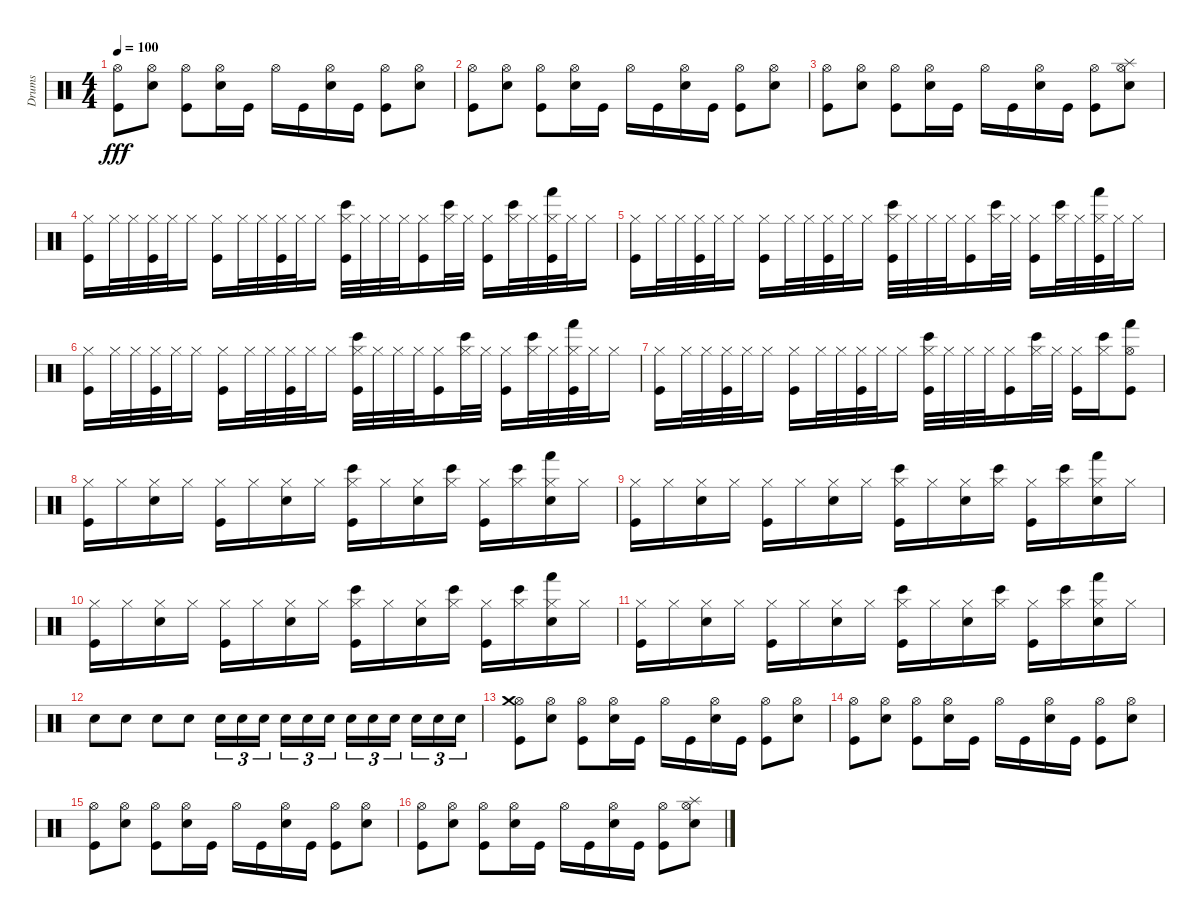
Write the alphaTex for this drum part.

\track ("Drums" "Drums") {instrument percussion}
\staff {score}
\articulation defaults
\ts (4 4)
\tempo 100
\clef neutral
\ks c
("Hi-Hat (open)" "Kick (hit)").8{dy fff} ("Hi-Hat (open)" "Snare (hit) 2").8 ("Hi-Hat (open)" "Kick (hit)").8 ("Hi-Hat (open)" "Snare (hit) 2").16 "Kick (hit)".16 "Hi-Hat (open)".16 "Kick (hit)".16 ("Hi-Hat (open)" "Snare (hit) 2").16 "Kick (hit)".16 ("Hi-Hat (open)" "Kick (hit)").8 ("Hi-Hat (open)" "Snare (hit) 2").8 |
("Hi-Hat (open)" "Kick (hit)").8 ("Hi-Hat (open)" "Snare (hit) 2").8 ("Hi-Hat (open)" "Kick (hit)").8 ("Hi-Hat (open)" "Snare (hit) 2").16 "Kick (hit)".16 "Hi-Hat (open)".16 "Kick (hit)".16 ("Hi-Hat (open)" "Snare (hit) 2").16 "Kick (hit)".16 ("Hi-Hat (open)" "Kick (hit)").8 ("Hi-Hat (open)" "Snare (hit) 2").8 |
("Hi-Hat (open)" "Kick (hit)").8 ("Hi-Hat (open)" "Snare (hit) 2").8 ("Hi-Hat (open)" "Kick (hit)").8 ("Hi-Hat (open)" "Snare (hit) 2").16 "Kick (hit)".16 "Hi-Hat (open)".16 "Kick (hit)".16 ("Hi-Hat (open)" "Snare (hit) 2").16 "Kick (hit)".16 ("Hi-Hat (open)" "Kick (hit)").8 ("Hi-Hat (open)" "Snare (hit) 2" "Splash (hit)").8 |
("Kick (hit)" "Hi-Hat (closed)").16 "Hi-Hat (closed)".32 "Hi-Hat (closed)".32 ("Kick (hit)" "Hi-Hat (closed)").32 "Hi-Hat (closed)".32 "Hi-Hat (closed)".16 ("Kick (hit)" "Hi-Hat (closed)").16 "Hi-Hat (closed)".32 "Hi-Hat (closed)".32 ("Kick (hit)" "Hi-Hat (closed)").32 "Hi-Hat (closed)".32 "Hi-Hat (closed)".16 ("Kick (hit)" "Hi-Hat (closed)" "Bongo High (hit)").32 "Hi-Hat (closed)".32 "Hi-Hat (closed)".32 "Hi-Hat (closed)".32 ("Kick (hit)" "Hi-Hat (closed)").16 ("Hi-Hat (closed)" "Bongo High (hit)").32 "Hi-Hat (closed)".32 ("Kick (hit)" "Hi-Hat (closed)").16 ("Hi-Hat (closed)" "Bongo High (hit)").32 "Hi-Hat (closed)".32 ("Kick (hit)" "Hi-Hat (closed)" "Hand (hit)").32 "Hi-Hat (closed)".32 "Hi-Hat (closed)".16 |
("Kick (hit)" "Hi-Hat (closed)").16 "Hi-Hat (closed)".32 "Hi-Hat (closed)".32 ("Kick (hit)" "Hi-Hat (closed)").32 "Hi-Hat (closed)".32 "Hi-Hat (closed)".16 ("Kick (hit)" "Hi-Hat (closed)").16 "Hi-Hat (closed)".32 "Hi-Hat (closed)".32 ("Kick (hit)" "Hi-Hat (closed)").32 "Hi-Hat (closed)".32 "Hi-Hat (closed)".16 ("Kick (hit)" "Hi-Hat (closed)" "Bongo High (hit)").32 "Hi-Hat (closed)".32 "Hi-Hat (closed)".32 "Hi-Hat (closed)".32 ("Kick (hit)" "Hi-Hat (closed)").16 ("Hi-Hat (closed)" "Bongo High (hit)").32 "Hi-Hat (closed)".32 ("Kick (hit)" "Hi-Hat (closed)").16 ("Hi-Hat (closed)" "Bongo High (hit)").32 "Hi-Hat (closed)".32 ("Kick (hit)" "Hi-Hat (closed)" "Hand (hit)").32 "Hi-Hat (closed)".32 "Hi-Hat (closed)".16 |
("Kick (hit)" "Hi-Hat (closed)").16 "Hi-Hat (closed)".32 "Hi-Hat (closed)".32 ("Kick (hit)" "Hi-Hat (closed)").32 "Hi-Hat (closed)".32 "Hi-Hat (closed)".16 ("Kick (hit)" "Hi-Hat (closed)").16 "Hi-Hat (closed)".32 "Hi-Hat (closed)".32 ("Kick (hit)" "Hi-Hat (closed)").32 "Hi-Hat (closed)".32 "Hi-Hat (closed)".16 ("Kick (hit)" "Hi-Hat (closed)" "Bongo High (hit)").32 "Hi-Hat (closed)".32 "Hi-Hat (closed)".32 "Hi-Hat (closed)".32 ("Kick (hit)" "Hi-Hat (closed)").16 ("Hi-Hat (closed)" "Bongo High (hit)").32 "Hi-Hat (closed)".32 ("Kick (hit)" "Hi-Hat (closed)").16 ("Hi-Hat (closed)" "Bongo High (hit)").32 "Hi-Hat (closed)".32 ("Kick (hit)" "Hi-Hat (closed)" "Hand (hit)").32 "Hi-Hat (closed)".32 "Hi-Hat (closed)".16 |
("Kick (hit)" "Hi-Hat (closed)").16 "Hi-Hat (closed)".32 "Hi-Hat (closed)".32 ("Kick (hit)" "Hi-Hat (closed)").32 "Hi-Hat (closed)".32 "Hi-Hat (closed)".16 ("Kick (hit)" "Hi-Hat (closed)").16 "Hi-Hat (closed)".32 "Hi-Hat (closed)".32 ("Kick (hit)" "Hi-Hat (closed)").32 "Hi-Hat (closed)".32 "Hi-Hat (closed)".16 ("Kick (hit)" "Hi-Hat (closed)" "Bongo High (hit)").32 "Hi-Hat (closed)".32 "Hi-Hat (closed)".32 "Hi-Hat (closed)".32 ("Kick (hit)" "Hi-Hat (closed)").16 ("Hi-Hat (closed)" "Bongo High (hit)").32 "Hi-Hat (closed)".32 ("Kick (hit)" "Hi-Hat (closed)").16 ("Bongo High (hit)" "Hi-Hat (closed)").16 ("Kick (hit)" "Hand (hit)" "Hi-Hat (open)").8 |
("Kick (hit)" "Hi-Hat (closed)").16 "Hi-Hat (closed)".16 ("Snare (hit) 2" "Hi-Hat (closed)").16 "Hi-Hat (closed)".16 ("Kick (hit)" "Hi-Hat (closed)").16 "Hi-Hat (closed)".16 ("Snare (hit) 2" "Hi-Hat (closed)").16 "Hi-Hat (closed)".16 ("Kick (hit)" "Hi-Hat (closed)" "Bongo High (hit)").16 "Hi-Hat (closed)".16 ("Snare (hit) 2" "Hi-Hat (closed)").16 ("Hi-Hat (closed)" "Bongo High (hit)").16 ("Kick (hit)" "Hi-Hat (closed)").16 ("Hi-Hat (closed)" "Bongo High (hit)").16 ("Snare (hit) 2" "Hi-Hat (closed)" "Hand (hit)").16 "Hi-Hat (closed)".16 |
("Kick (hit)" "Hi-Hat (closed)").16 "Hi-Hat (closed)".16 ("Snare (hit) 2" "Hi-Hat (closed)").16 "Hi-Hat (closed)".16 ("Kick (hit)" "Hi-Hat (closed)").16 "Hi-Hat (closed)".16 ("Snare (hit) 2" "Hi-Hat (closed)").16 "Hi-Hat (closed)".16 ("Kick (hit)" "Hi-Hat (closed)" "Bongo High (hit)").16 "Hi-Hat (closed)".16 ("Snare (hit) 2" "Hi-Hat (closed)").16 ("Hi-Hat (closed)" "Bongo High (hit)").16 ("Kick (hit)" "Hi-Hat (closed)").16 ("Hi-Hat (closed)" "Bongo High (hit)").16 ("Snare (hit) 2" "Hi-Hat (closed)" "Hand (hit)").16 "Hi-Hat (closed)".16 |
("Kick (hit)" "Hi-Hat (closed)").16 "Hi-Hat (closed)".16 ("Snare (hit) 2" "Hi-Hat (closed)").16 "Hi-Hat (closed)".16 ("Kick (hit)" "Hi-Hat (closed)").16 "Hi-Hat (closed)".16 ("Snare (hit) 2" "Hi-Hat (closed)").16 "Hi-Hat (closed)".16 ("Kick (hit)" "Hi-Hat (closed)" "Bongo High (hit)").16 "Hi-Hat (closed)".16 ("Snare (hit) 2" "Hi-Hat (closed)").16 ("Hi-Hat (closed)" "Bongo High (hit)").16 ("Kick (hit)" "Hi-Hat (closed)").16 ("Hi-Hat (closed)" "Bongo High (hit)").16 ("Snare (hit) 2" "Hi-Hat (closed)" "Hand (hit)").16 "Hi-Hat (closed)".16 |
("Kick (hit)" "Hi-Hat (closed)").16 "Hi-Hat (closed)".16 ("Snare (hit) 2" "Hi-Hat (closed)").16 "Hi-Hat (closed)".16 ("Kick (hit)" "Hi-Hat (closed)").16 "Hi-Hat (closed)".16 ("Snare (hit) 2" "Hi-Hat (closed)").16 "Hi-Hat (closed)".16 ("Kick (hit)" "Hi-Hat (closed)" "Bongo High (hit)").16 "Hi-Hat (closed)".16 ("Snare (hit) 2" "Hi-Hat (closed)").16 ("Hi-Hat (closed)" "Bongo High (hit)").16 ("Kick (hit)" "Hi-Hat (closed)").16 ("Hi-Hat (closed)" "Bongo High (hit)").16 ("Snare (hit) 2" "Hi-Hat (closed)" "Hand (hit)").16 "Hi-Hat (closed)".16 |
"Snare (hit) 2".8 "Snare (hit) 2".8 "Snare (hit) 2".8 "Snare (hit) 2".8 "Snare (hit) 2".16{tu (3 2)} "Snare (hit) 2".16{tu (3 2)} "Snare (hit) 2".16{tu (3 2)} "Snare (hit) 2".16{tu (3 2)} "Snare (hit) 2".16{tu (3 2)} "Snare (hit) 2".16{tu (3 2)} "Snare (hit) 2".16{tu (3 2)} "Snare (hit) 2".16{tu (3 2)} "Snare (hit) 2".16{tu (3 2)} "Snare (hit) 2".16{tu (3 2)} "Snare (hit) 2".16{tu (3 2)} "Snare (hit) 2".16{tu (3 2)} |
("Hi-Hat (open)" "Kick (hit)" "Crash medium (hit)").8 ("Hi-Hat (open)" "Snare (hit) 2").8 ("Hi-Hat (open)" "Kick (hit)").8 ("Hi-Hat (open)" "Snare (hit) 2").16 "Kick (hit)".16 "Hi-Hat (open)".16 "Kick (hit)".16 ("Hi-Hat (open)" "Snare (hit) 2").16 "Kick (hit)".16 ("Hi-Hat (open)" "Kick (hit)").8 ("Hi-Hat (open)" "Snare (hit) 2").8 |
("Hi-Hat (open)" "Kick (hit)").8 ("Hi-Hat (open)" "Snare (hit) 2").8 ("Hi-Hat (open)" "Kick (hit)").8 ("Hi-Hat (open)" "Snare (hit) 2").16 "Kick (hit)".16 "Hi-Hat (open)".16 "Kick (hit)".16 ("Hi-Hat (open)" "Snare (hit) 2").16 "Kick (hit)".16 ("Hi-Hat (open)" "Kick (hit)").8 ("Hi-Hat (open)" "Snare (hit) 2").8 |
("Hi-Hat (open)" "Kick (hit)").8 ("Hi-Hat (open)" "Snare (hit) 2").8 ("Hi-Hat (open)" "Kick (hit)").8 ("Hi-Hat (open)" "Snare (hit) 2").16 "Kick (hit)".16 "Hi-Hat (open)".16 "Kick (hit)".16 ("Hi-Hat (open)" "Snare (hit) 2").16 "Kick (hit)".16 ("Hi-Hat (open)" "Kick (hit)").8 ("Hi-Hat (open)" "Snare (hit) 2").8 |
("Hi-Hat (open)" "Kick (hit)").8 ("Hi-Hat (open)" "Snare (hit) 2").8 ("Hi-Hat (open)" "Kick (hit)").8 ("Hi-Hat (open)" "Snare (hit) 2").16 "Kick (hit)".16 "Hi-Hat (open)".16 "Kick (hit)".16 ("Hi-Hat (open)" "Snare (hit) 2").16 "Kick (hit)".16 ("Hi-Hat (open)" "Kick (hit)").8 ("Hi-Hat (open)" "Snare (hit) 2" "Splash (hit)").8
